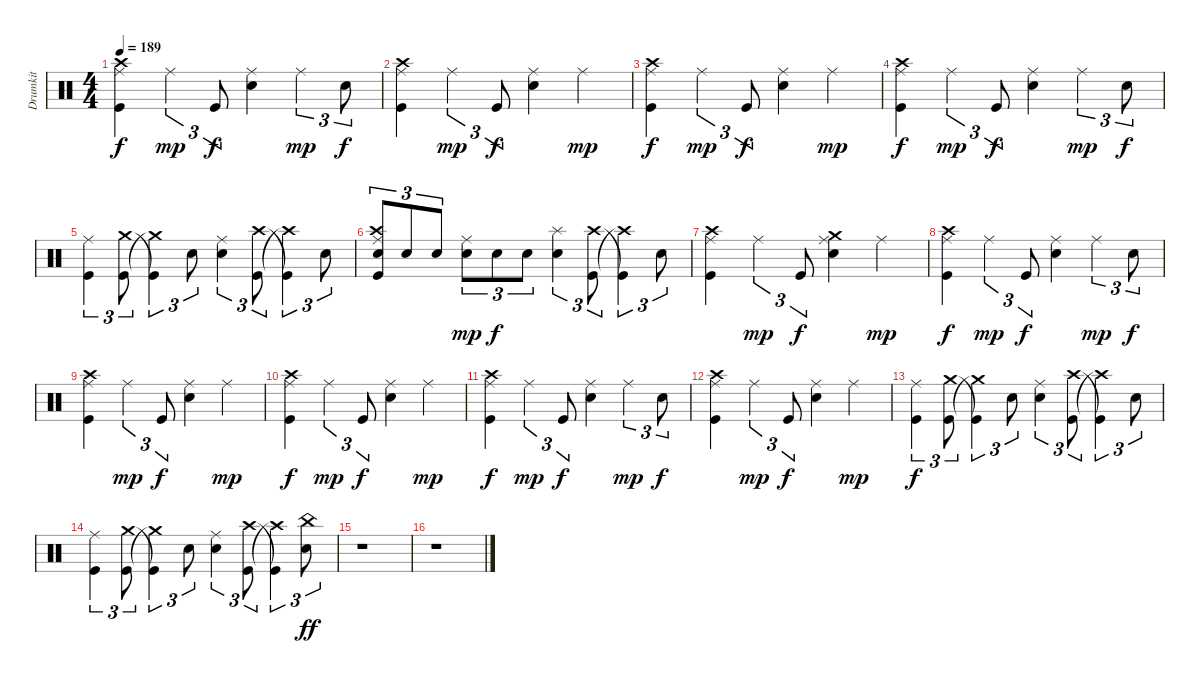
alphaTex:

\track ("Drumkit" "Drumkit") {instrument percussion}
\staff {score}
\articulation defaults
\ts (4 4)
\tempo 189
\clef neutral
\ks c
("Kick (hit)" "Crash high (hit)" "Ride (middle)").4{dy f} "Ride (middle)".4{tu (3 2) dy mp} "Kick (hit)".8{tu (3 2) dy f} ("Snare (hit) 2" "Ride (middle)").4 "Ride (middle)".4{tu (3 2) dy mp} "Snare (hit) 2".8{tu (3 2) dy f} |
("Kick (hit)" "Crash high (hit)" "Ride (middle)").4 "Ride (middle)".4{tu (3 2) dy mp} "Kick (hit)".8{tu (3 2) dy f} ("Snare (hit) 2" "Ride (middle)").4 "Ride (middle)".4{dy mp} |
("Kick (hit)" "Crash high (hit)" "Ride (middle)").4{dy f} "Ride (middle)".4{tu (3 2) dy mp} "Kick (hit)".8{tu (3 2) dy f} ("Snare (hit) 2" "Ride (middle)").4 "Ride (middle)".4{dy mp} |
("Kick (hit)" "Crash high (hit)" "Ride (middle)").4{dy f} "Ride (middle)".4{tu (3 2) dy mp} "Kick (hit)".8{tu (3 2) dy f} ("Snare (hit) 2" "Ride (middle)").4 "Ride (middle)".4{tu (3 2) dy mp} "Snare (hit) 2".8{tu (3 2) dy f} |
("Kick (hit)" "Ride (middle)").4{tu (3 2)} ("Kick (hit)" "Crash medium (hit)").8{tu (3 2)} ("Crash medium (hit)"{t} "Kick (hit)"{t}).4{tu (3 2)} "Snare (hit) 2".8{tu (3 2)} ("Snare (hit) 2" "Ride (middle)").4{tu (3 2)} ("Kick (hit)" "Crash high (hit)").8{tu (3 2)} ("Crash high (hit)"{t} "Kick (hit)"{t}).4{tu (3 2)} "Snare (hit) 2".8{tu (3 2)} |
("Kick (hit)" "Crash high (hit)" "Ride (middle)" "Snare (hit) 2").8{tu (3 2)} "Snare (hit) 2".8{tu (3 2)} "Snare (hit) 2".8{tu (3 2)} ("Ride (middle)" "Snare (hit) 2").8{tu (3 2) dy mp} "Snare (hit) 2".8{tu (3 2) dy f} "Snare (hit) 2".8{tu (3 2)} ("Snare (hit) 2" "Splash (hit)").4{tu (3 2)} ("Kick (hit)" "Crash high (hit)").8{tu (3 2)} ("Crash high (hit)"{t} "Kick (hit)"{t}).4{tu (3 2)} "Snare (hit) 2".8{tu (3 2)} |
("Kick (hit)" "Crash high (hit)" "Ride (middle)").4 "Ride (middle)".4{tu (3 2) dy mp} "Kick (hit)".8{tu (3 2) dy f} ("Snare (hit) 2" "Ride (middle)" "Crash medium (hit)").4 "Ride (middle)".4{dy mp} |
("Kick (hit)" "Crash high (hit)" "Ride (middle)").4{dy f} "Ride (middle)".4{tu (3 2) dy mp} "Kick (hit)".8{tu (3 2) dy f} ("Snare (hit) 2" "Ride (middle)").4 "Ride (middle)".4{tu (3 2) dy mp} "Snare (hit) 2".8{tu (3 2) dy f} |
("Kick (hit)" "Crash high (hit)" "Ride (middle)").4 "Ride (middle)".4{tu (3 2) dy mp} "Kick (hit)".8{tu (3 2) dy f} ("Snare (hit) 2" "Ride (middle)").4 "Ride (middle)".4{dy mp} |
("Kick (hit)" "Crash high (hit)" "Ride (middle)").4{dy f} "Ride (middle)".4{tu (3 2) dy mp} "Kick (hit)".8{tu (3 2) dy f} ("Snare (hit) 2" "Ride (middle)").4 "Ride (middle)".4{dy mp} |
("Kick (hit)" "Crash high (hit)" "Ride (middle)").4{dy f} "Ride (middle)".4{tu (3 2) dy mp} "Kick (hit)".8{tu (3 2) dy f} ("Snare (hit) 2" "Ride (middle)").4 "Ride (middle)".4{tu (3 2) dy mp} "Snare (hit) 2".8{tu (3 2) dy f} |
("Kick (hit)" "Crash high (hit)" "Ride (middle)").4 "Ride (middle)".4{tu (3 2) dy mp} "Kick (hit)".8{tu (3 2) dy f} ("Snare (hit) 2" "Ride (middle)").4 "Ride (middle)".4{dy mp} |
("Kick (hit)" "Ride (middle)").4{tu (3 2) dy f} ("Kick (hit)" "Crash medium (hit)").8{tu (3 2)} ("Crash medium (hit)"{t} "Kick (hit)"{t}).4{tu (3 2)} "Snare (hit) 2".8{tu (3 2)} ("Snare (hit) 2" "Ride (middle)").4{tu (3 2)} ("Kick (hit)" "Crash high (hit)").8{tu (3 2)} ("Crash high (hit)"{t} "Kick (hit)"{t}).4{tu (3 2)} "Snare (hit) 2".8{tu (3 2)} |
("Kick (hit)" "Ride (middle)").4{tu (3 2)} ("Kick (hit)" "Crash medium (hit)").8{tu (3 2)} ("Crash medium (hit)"{t} "Kick (hit)"{t}).4{tu (3 2)} "Snare (hit) 2".8{tu (3 2)} ("Snare (hit) 2" "Ride (middle)").4{tu (3 2)} ("Kick (hit)" "Crash high (hit)").8{tu (3 2)} ("Crash high (hit)"{t} "Kick (hit)"{t}).4{tu (3 2)} ("Snare (hit) 2" "China (hit)").8{tu (3 2) dy ff} |
r.1 |
r.1
